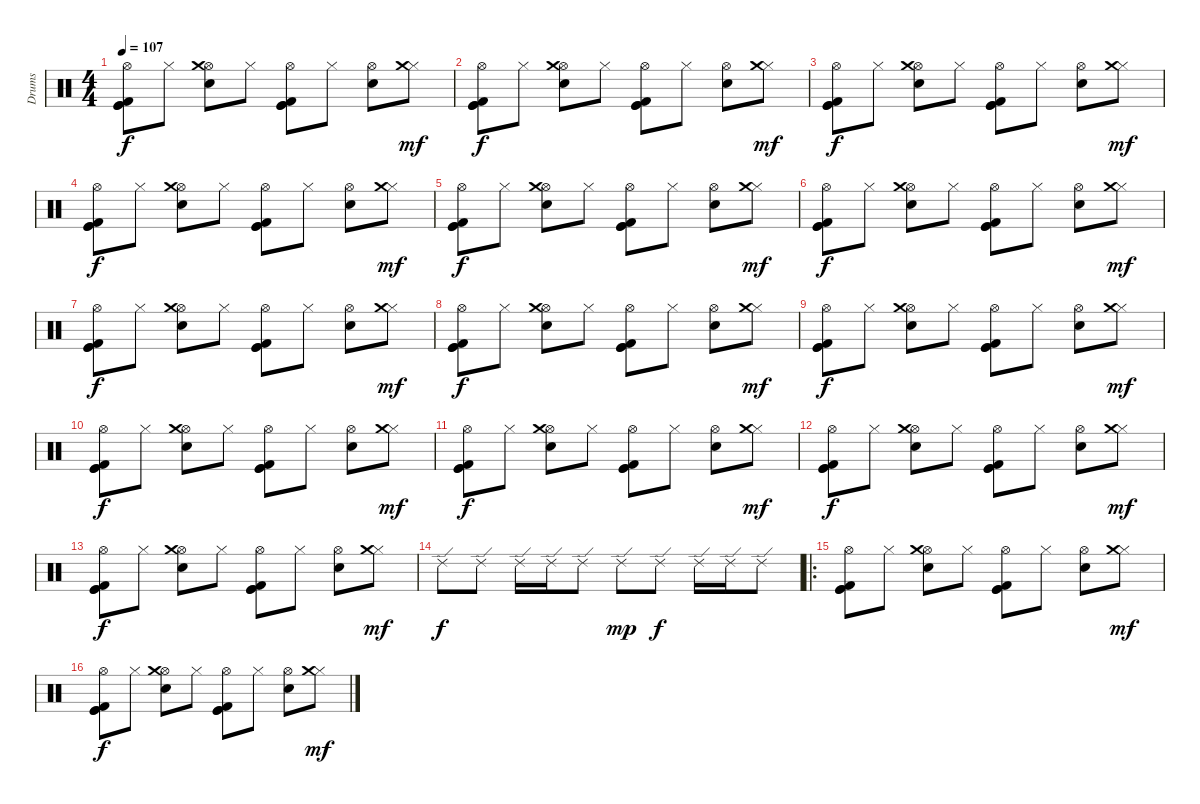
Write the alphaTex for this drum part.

\track ("Drums" "Drums") {instrument percussion}
\staff {score}
\articulation defaults
\ts (4 4)
\tempo 107
\clef neutral
\ks c
("Hi-Hat (open)" "Kick (hit) 2" "Kick (hit)" "Kick (hit)").8{dy f} "Hi-Hat (closed)".8 ("Hi-Hat (open)" "Crash medium (hit)" "Snare (hit) 2").8 "Hi-Hat (closed)".8 ("Hi-Hat (open)" "Kick (hit) 2" "Kick (hit)" "Kick (hit)").8 "Hi-Hat (closed)".8 ("Hi-Hat (open)" "Electric Snare (hit)").8 ("Hi-Hat (closed)" "Crash medium (hit)").8{dy mf} |
("Hi-Hat (open)" "Kick (hit) 2" "Kick (hit)" "Kick (hit)").8{dy f} "Hi-Hat (closed)".8 ("Hi-Hat (open)" "Crash medium (hit)" "Snare (hit) 2").8 "Hi-Hat (closed)".8 ("Hi-Hat (open)" "Kick (hit) 2" "Kick (hit)" "Kick (hit)").8 "Hi-Hat (closed)".8 ("Hi-Hat (open)" "Electric Snare (hit)").8 ("Hi-Hat (closed)" "Crash medium (hit)").8{dy mf} |
("Hi-Hat (open)" "Kick (hit) 2" "Kick (hit)" "Kick (hit)").8{dy f} "Hi-Hat (closed)".8 ("Hi-Hat (open)" "Crash medium (hit)" "Snare (hit) 2").8 "Hi-Hat (closed)".8 ("Hi-Hat (open)" "Kick (hit) 2" "Kick (hit)" "Kick (hit)").8 "Hi-Hat (closed)".8 ("Hi-Hat (open)" "Electric Snare (hit)").8 ("Hi-Hat (closed)" "Crash medium (hit)").8{dy mf} |
("Hi-Hat (open)" "Kick (hit) 2" "Kick (hit)" "Kick (hit)").8{dy f} "Hi-Hat (closed)".8 ("Hi-Hat (open)" "Crash medium (hit)" "Snare (hit) 2").8 "Hi-Hat (closed)".8 ("Hi-Hat (open)" "Kick (hit) 2" "Kick (hit)" "Kick (hit)").8 "Hi-Hat (closed)".8 ("Hi-Hat (open)" "Electric Snare (hit)").8 ("Hi-Hat (closed)" "Crash medium (hit)").8{dy mf} |
("Hi-Hat (open)" "Kick (hit) 2" "Kick (hit)" "Kick (hit)").8{dy f} "Hi-Hat (closed)".8 ("Hi-Hat (open)" "Crash medium (hit)" "Snare (hit) 2").8 "Hi-Hat (closed)".8 ("Hi-Hat (open)" "Kick (hit) 2" "Kick (hit)" "Kick (hit)").8 "Hi-Hat (closed)".8 ("Hi-Hat (open)" "Electric Snare (hit)").8 ("Hi-Hat (closed)" "Crash medium (hit)").8{dy mf} |
("Hi-Hat (open)" "Kick (hit) 2" "Kick (hit)" "Kick (hit)").8{dy f} "Hi-Hat (closed)".8 ("Hi-Hat (open)" "Crash medium (hit)" "Snare (hit) 2").8 "Hi-Hat (closed)".8 ("Hi-Hat (open)" "Kick (hit) 2" "Kick (hit)" "Kick (hit)").8 "Hi-Hat (closed)".8 ("Hi-Hat (open)" "Electric Snare (hit)").8 ("Hi-Hat (closed)" "Crash medium (hit)").8{dy mf} |
("Hi-Hat (open)" "Kick (hit) 2" "Kick (hit)" "Kick (hit)").8{dy f} "Hi-Hat (closed)".8 ("Hi-Hat (open)" "Crash medium (hit)" "Snare (hit) 2").8 "Hi-Hat (closed)".8 ("Hi-Hat (open)" "Kick (hit) 2" "Kick (hit)" "Kick (hit)").8 "Hi-Hat (closed)".8 ("Hi-Hat (open)" "Electric Snare (hit)").8 ("Hi-Hat (closed)" "Crash medium (hit)").8{dy mf} |
("Hi-Hat (open)" "Kick (hit) 2" "Kick (hit)" "Kick (hit)").8{dy f} "Hi-Hat (closed)".8 ("Hi-Hat (open)" "Crash medium (hit)" "Snare (hit) 2").8 "Hi-Hat (closed)".8 ("Hi-Hat (open)" "Kick (hit) 2" "Kick (hit)" "Kick (hit)").8 "Hi-Hat (closed)".8 ("Hi-Hat (open)" "Electric Snare (hit)").8 ("Hi-Hat (closed)" "Crash medium (hit)").8{dy mf} |
("Hi-Hat (open)" "Kick (hit) 2" "Kick (hit)" "Kick (hit)").8{dy f} "Hi-Hat (closed)".8 ("Hi-Hat (open)" "Crash medium (hit)" "Snare (hit) 2").8 "Hi-Hat (closed)".8 ("Hi-Hat (open)" "Kick (hit) 2" "Kick (hit)" "Kick (hit)").8 "Hi-Hat (closed)".8 ("Hi-Hat (open)" "Electric Snare (hit)").8 ("Hi-Hat (closed)" "Crash medium (hit)").8{dy mf} |
("Hi-Hat (open)" "Kick (hit) 2" "Kick (hit)" "Kick (hit)").8{dy f} "Hi-Hat (closed)".8 ("Hi-Hat (open)" "Crash medium (hit)" "Snare (hit) 2").8 "Hi-Hat (closed)".8 ("Hi-Hat (open)" "Kick (hit) 2" "Kick (hit)" "Kick (hit)").8 "Hi-Hat (closed)".8 ("Hi-Hat (open)" "Electric Snare (hit)").8 ("Hi-Hat (closed)" "Crash medium (hit)").8{dy mf} |
("Hi-Hat (open)" "Kick (hit) 2" "Kick (hit)" "Kick (hit)").8{dy f} "Hi-Hat (closed)".8 ("Hi-Hat (open)" "Crash medium (hit)" "Snare (hit) 2").8 "Hi-Hat (closed)".8 ("Hi-Hat (open)" "Kick (hit) 2" "Kick (hit)" "Kick (hit)").8 "Hi-Hat (closed)".8 ("Hi-Hat (open)" "Electric Snare (hit)").8 ("Hi-Hat (closed)" "Crash medium (hit)").8{dy mf} |
("Hi-Hat (open)" "Kick (hit) 2" "Kick (hit)" "Kick (hit)").8{dy f} "Hi-Hat (closed)".8 ("Hi-Hat (open)" "Crash medium (hit)" "Snare (hit) 2").8 "Hi-Hat (closed)".8 ("Hi-Hat (open)" "Kick (hit) 2" "Kick (hit)" "Kick (hit)").8 "Hi-Hat (closed)".8 ("Hi-Hat (open)" "Electric Snare (hit)").8 ("Hi-Hat (closed)" "Crash medium (hit)").8{dy mf} |
("Hi-Hat (open)" "Kick (hit) 2" "Kick (hit)" "Kick (hit)").8{dy f} "Hi-Hat (closed)".8 ("Hi-Hat (open)" "Crash medium (hit)" "Snare (hit) 2").8 "Hi-Hat (closed)".8 ("Hi-Hat (open)" "Kick (hit) 2" "Kick (hit)" "Kick (hit)").8 "Hi-Hat (closed)".8 ("Hi-Hat (open)" "Electric Snare (hit)").8 ("Hi-Hat (closed)" "Crash medium (hit)").8{dy mf} |
"Ride (edge) 2".8{dy f} "Ride (edge) 2".8 "Ride (edge) 2".16 "Ride (edge) 2".16 "Ride (edge) 2".8 "Ride (edge) 2".8{dy mp} "Ride (edge) 2".8{dy f} "Ride (edge) 2".16 "Ride (edge) 2".16 "Ride (edge) 2".8 |
\ro
("Hi-Hat (open)" "Kick (hit) 2" "Kick (hit)" "Kick (hit)").8 "Hi-Hat (closed)".8 ("Hi-Hat (open)" "Crash medium (hit)" "Snare (hit) 2").8 "Hi-Hat (closed)".8 ("Hi-Hat (open)" "Kick (hit) 2" "Kick (hit)" "Kick (hit)").8 "Hi-Hat (closed)".8 ("Hi-Hat (open)" "Electric Snare (hit)").8 ("Hi-Hat (closed)" "Crash medium (hit)").8{dy mf} |
("Hi-Hat (open)" "Kick (hit) 2" "Kick (hit)" "Kick (hit)").8{dy f} "Hi-Hat (closed)".8 ("Hi-Hat (open)" "Crash medium (hit)" "Snare (hit) 2").8 "Hi-Hat (closed)".8 ("Hi-Hat (open)" "Kick (hit) 2" "Kick (hit)" "Kick (hit)").8 "Hi-Hat (closed)".8 ("Hi-Hat (open)" "Electric Snare (hit)").8 ("Hi-Hat (closed)" "Crash medium (hit)").8{dy mf}
